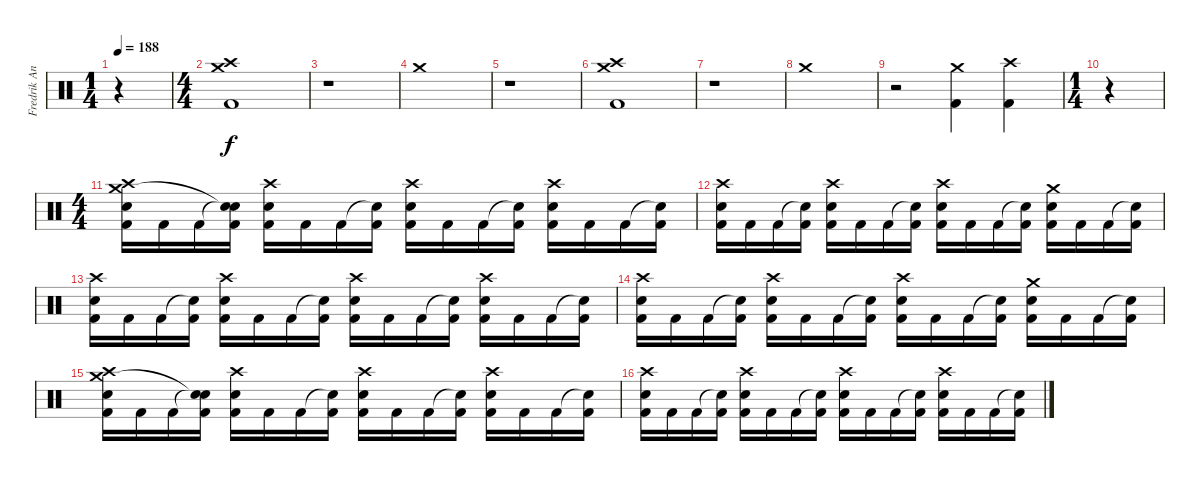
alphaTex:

\track ("Fredrik Andersson" "Fredrik An") {instrument percussion}
\staff {score}
\articulation defaults
\ts (1 4)
\tempo 188
\clef neutral
\ks c
r.4{dy f} |
\ts (4 4)
("Crash high (hit)" "Crash medium (hit)" "Kick (hit) 2").1 |
r.1 |
"Crash medium (hit)".1 |
r.1 |
("Crash high (hit)" "Crash medium (hit)" "Kick (hit) 2").1 |
r.1 |
"Crash medium (hit)".1 |
r.2 ("Crash medium (hit)" "Kick (hit) 2").4 ("Crash high (hit)" "Kick (hit) 2").4 |
\ts (1 4)
r.4 |
\ts (4 4)
("Crash high (hit)" "Crash medium (hit)" "Snare (hit) 2" "Kick (hit) 2").16 "Kick (hit) 2".16 "Kick (hit) 2".16 ("Snare (hit)"{t} "Snare (hit)"{t} "Kick (hit) 2").16 ("Crash high (hit)" "Snare (hit) 2" "Kick (hit) 2").16 "Kick (hit) 2".16 "Kick (hit) 2".16 ("Snare (hit)"{t} "Kick (hit) 2").16 ("Crash high (hit)" "Snare (hit) 2" "Kick (hit) 2").16 "Kick (hit) 2".16 "Kick (hit) 2".16 ("Snare (hit)"{t} "Kick (hit) 2").16 ("Crash high (hit)" "Snare (hit) 2" "Kick (hit) 2").16 "Kick (hit) 2".16 "Kick (hit) 2".16 ("Snare (hit)"{t} "Kick (hit) 2").16 |
("Crash high (hit)" "Snare (hit) 2" "Kick (hit) 2").16 "Kick (hit) 2".16 "Kick (hit) 2".16 ("Snare (hit)"{t} "Kick (hit) 2").16 ("Crash high (hit)" "Snare (hit) 2" "Kick (hit) 2").16 "Kick (hit) 2".16 "Kick (hit) 2".16 ("Snare (hit)"{t} "Kick (hit) 2").16 ("Crash high (hit)" "Snare (hit) 2" "Kick (hit) 2").16 "Kick (hit) 2".16 "Kick (hit) 2".16 ("Snare (hit)"{t} "Kick (hit) 2").16 ("Crash medium (hit)" "Snare (hit) 2" "Kick (hit) 2").16 "Kick (hit) 2".16 "Kick (hit) 2".16 ("Snare (hit)"{t} "Kick (hit) 2").16 |
("Crash high (hit)" "Snare (hit) 2" "Kick (hit) 2").16 "Kick (hit) 2".16 "Kick (hit) 2".16 ("Snare (hit)"{t} "Kick (hit) 2").16 ("Crash high (hit)" "Snare (hit) 2" "Kick (hit) 2").16 "Kick (hit) 2".16 "Kick (hit) 2".16 ("Snare (hit)"{t} "Kick (hit) 2").16 ("Crash high (hit)" "Snare (hit) 2" "Kick (hit) 2").16 "Kick (hit) 2".16 "Kick (hit) 2".16 ("Snare (hit)"{t} "Kick (hit) 2").16 ("Crash high (hit)" "Snare (hit) 2" "Kick (hit) 2").16 "Kick (hit) 2".16 "Kick (hit) 2".16 ("Snare (hit)"{t} "Kick (hit) 2").16 |
("Crash high (hit)" "Snare (hit) 2" "Kick (hit) 2").16 "Kick (hit) 2".16 "Kick (hit) 2".16 ("Snare (hit)"{t} "Kick (hit) 2").16 ("Crash high (hit)" "Snare (hit) 2" "Kick (hit) 2").16 "Kick (hit) 2".16 "Kick (hit) 2".16 ("Snare (hit)"{t} "Kick (hit) 2").16 ("Crash high (hit)" "Snare (hit) 2" "Kick (hit) 2").16 "Kick (hit) 2".16 "Kick (hit) 2".16 ("Snare (hit)"{t} "Kick (hit) 2").16 ("Crash medium (hit)" "Snare (hit) 2" "Kick (hit) 2").16 "Kick (hit) 2".16 "Kick (hit) 2".16 ("Snare (hit)"{t} "Kick (hit) 2").16 |
("Crash high (hit)" "Crash medium (hit)" "Snare (hit) 2" "Kick (hit) 2").16 "Kick (hit) 2".16 "Kick (hit) 2".16 ("Snare (hit)"{t} "Snare (hit)"{t} "Kick (hit) 2").16 ("Crash high (hit)" "Snare (hit) 2" "Kick (hit) 2").16 "Kick (hit) 2".16 "Kick (hit) 2".16 ("Snare (hit)"{t} "Kick (hit) 2").16 ("Crash high (hit)" "Snare (hit) 2" "Kick (hit) 2").16 "Kick (hit) 2".16 "Kick (hit) 2".16 ("Snare (hit)"{t} "Kick (hit) 2").16 ("Crash high (hit)" "Snare (hit) 2" "Kick (hit) 2").16 "Kick (hit) 2".16 "Kick (hit) 2".16 ("Snare (hit)"{t} "Kick (hit) 2").16 |
("Crash high (hit)" "Snare (hit) 2" "Kick (hit) 2").16 "Kick (hit) 2".16 "Kick (hit) 2".16 ("Snare (hit)"{t} "Kick (hit) 2").16 ("Crash high (hit)" "Snare (hit) 2" "Kick (hit) 2").16 "Kick (hit) 2".16 "Kick (hit) 2".16 ("Snare (hit)"{t} "Kick (hit) 2").16 ("Crash high (hit)" "Snare (hit) 2" "Kick (hit) 2").16 "Kick (hit) 2".16 "Kick (hit) 2".16 ("Snare (hit)"{t} "Kick (hit) 2").16 ("Crash high (hit)" "Snare (hit) 2" "Kick (hit) 2").16 "Kick (hit) 2".16 "Kick (hit) 2".16 ("Snare (hit)"{t} "Kick (hit) 2").16
